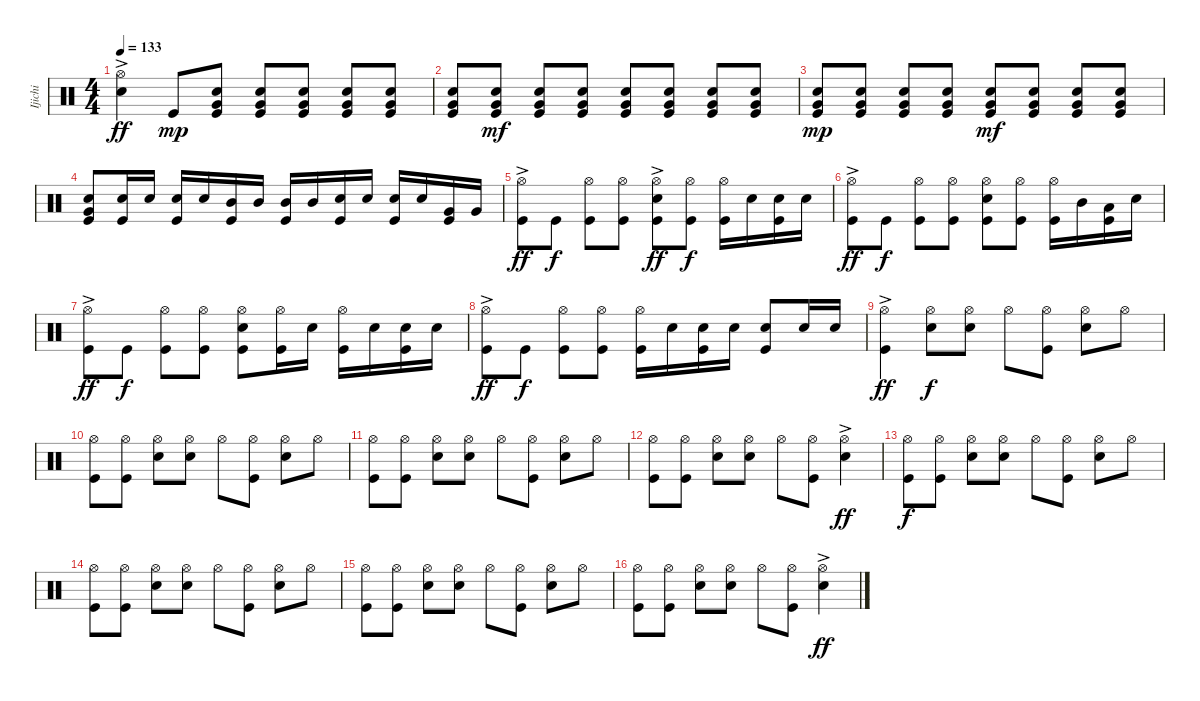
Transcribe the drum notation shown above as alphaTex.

\track ("Ijichi" "Ijichi") {instrument percussion}
\staff {score}
\articulation defaults
\ts (4 4)
\tempo 133
\clef neutral
\ks c
("Hi-Hat (open)"{ac} "Snare (hit) 2").4{dy ff} "Kick (hit)".8{dy mp} ("Snare (hit) 2" "Very Low Tom (hit)" "Kick (hit)").8 ("Snare (hit) 2" "Very Low Tom (hit)" "Kick (hit)").8 ("Snare (hit) 2" "Very Low Tom (hit)" "Kick (hit)").8 ("Snare (hit) 2" "Very Low Tom (hit)" "Kick (hit)").8 ("Snare (hit) 2" "Very Low Tom (hit)" "Kick (hit)").8 |
("Snare (hit) 2" "Very Low Tom (hit)" "Kick (hit)").8 ("Snare (hit) 2" "Very Low Tom (hit)" "Kick (hit)").8{dy mf} ("Snare (hit) 2" "Very Low Tom (hit)" "Kick (hit)").8 ("Snare (hit) 2" "Very Low Tom (hit)" "Kick (hit)").8 ("Snare (hit) 2" "Very Low Tom (hit)" "Kick (hit)").8 ("Snare (hit) 2" "Very Low Tom (hit)" "Kick (hit)").8 ("Snare (hit) 2" "Very Low Tom (hit)" "Kick (hit)").8 ("Snare (hit) 2" "Very Low Tom (hit)" "Kick (hit)").8 |
("Snare (hit) 2" "Very Low Tom (hit)" "Kick (hit)").8{dy mp} ("Snare (hit) 2" "Very Low Tom (hit)" "Kick (hit)").8 ("Snare (hit) 2" "Very Low Tom (hit)" "Kick (hit)").8 ("Snare (hit) 2" "Very Low Tom (hit)" "Kick (hit)").8 ("Snare (hit) 2" "Very Low Tom (hit)" "Kick (hit)").8{dy mf} ("Snare (hit) 2" "Very Low Tom (hit)" "Kick (hit)").8 ("Snare (hit) 2" "Very Low Tom (hit)" "Kick (hit)").8 ("Snare (hit) 2" "Very Low Tom (hit)" "Kick (hit)").8 |
("Snare (hit) 2" "Very Low Tom (hit)" "Kick (hit)").8 ("Snare (hit) 2" "Kick (hit)").16 "Snare (hit) 2".16 ("Snare (hit) 2" "Kick (hit)").16 "Snare (hit) 2".16 ("Mid Tom (hit)" "Kick (hit)").16 "Mid Tom (hit)".16 ("Mid Tom (hit)" "Kick (hit)").16 "Mid Tom (hit)".16 ("Snare (hit) 2" "Kick (hit)").16 "Snare (hit) 2".16 ("Snare (hit) 2" "Kick (hit)").16 "Snare (hit) 2".16 ("Very Low Tom (hit)" "Kick (hit)").16 "Very Low Tom (hit)".16 |
("Hi-Hat (open)"{ac} "Kick (hit)").8{dy ff} "Kick (hit)".8{dy f} ("Hi-Hat (open)" "Kick (hit)").8 ("Hi-Hat (open)" "Kick (hit)").8 ("Hi-Hat (open)"{ac} "Snare (hit) 2" "Kick (hit)").8{dy ff} ("Hi-Hat (open)" "Kick (hit)").8{dy f} ("Hi-Hat (open)" "Kick (hit)").16 "Snare (hit) 2".16 ("Snare (hit) 2" "Kick (hit)").16 "Snare (hit) 2".16 |
("Hi-Hat (open)"{ac} "Kick (hit)").8{dy ff} "Kick (hit)".8{dy f} ("Hi-Hat (open)" "Kick (hit)").8 ("Hi-Hat (open)" "Kick (hit)").8 ("Hi-Hat (open)" "Snare (hit) 2" "Kick (hit)").8 ("Hi-Hat (open)" "Kick (hit)").8 ("Hi-Hat (open)" "Kick (hit)").16 "Mid Tom (hit)".16 ("Low Tom (hit)" "Kick (hit)").16 "Snare (hit) 2".16 |
("Hi-Hat (open)"{ac} "Kick (hit)").8{dy ff} "Kick (hit)".8{dy f} ("Hi-Hat (open)" "Kick (hit)").8 ("Hi-Hat (open)" "Kick (hit)").8 ("Hi-Hat (open)" "Snare (hit) 2" "Kick (hit)").8 ("Hi-Hat (open)" "Kick (hit)").16 "Snare (hit) 2".16 ("Hi-Hat (open)" "Kick (hit)").16 "Snare (hit) 2".16 ("Snare (hit) 2" "Kick (hit)").16 "Snare (hit) 2".16 |
("Hi-Hat (open)"{ac} "Kick (hit)").8{dy ff} "Kick (hit)".8{dy f} ("Hi-Hat (open)" "Kick (hit)").8 ("Hi-Hat (open)" "Kick (hit)").8 ("Hi-Hat (open)" "Kick (hit)").16 "Snare (hit) 2".16 ("Snare (hit) 2" "Kick (hit)").16 "Snare (hit) 2".16 ("Snare (hit) 2" "Kick (hit)").8 "Snare (hit) 2".16 "Snare (hit) 2".16 |
("Hi-Hat (open)"{ac} "Kick (hit)").4{dy ff} ("Hi-Hat (open)" "Snare (hit) 2").8{dy f} ("Hi-Hat (open)" "Snare (hit) 2").8 "Hi-Hat (open)".8 ("Hi-Hat (open)" "Kick (hit)").8 ("Hi-Hat (open)" "Snare (hit) 2").8 "Hi-Hat (open)".8 |
("Hi-Hat (open)" "Kick (hit)").8 ("Hi-Hat (open)" "Kick (hit)").8 ("Hi-Hat (open)" "Snare (hit) 2").8 ("Hi-Hat (open)" "Snare (hit) 2").8 "Hi-Hat (open)".8 ("Hi-Hat (open)" "Kick (hit)").8 ("Hi-Hat (open)" "Snare (hit) 2").8 "Hi-Hat (open)".8 |
("Hi-Hat (open)" "Kick (hit)").8 ("Hi-Hat (open)" "Kick (hit)").8 ("Hi-Hat (open)" "Snare (hit) 2").8 ("Hi-Hat (open)" "Snare (hit) 2").8 "Hi-Hat (open)".8 ("Hi-Hat (open)" "Kick (hit)").8 ("Hi-Hat (open)" "Snare (hit) 2").8 "Hi-Hat (open)".8 |
("Hi-Hat (open)" "Kick (hit)").8 ("Hi-Hat (open)" "Kick (hit)").8 ("Hi-Hat (open)" "Snare (hit) 2").8 ("Hi-Hat (open)" "Snare (hit) 2").8 "Hi-Hat (open)".8 ("Hi-Hat (open)" "Kick (hit)").8 ("Hi-Hat (open)"{ac} "Snare (hit) 2").4{dy ff} |
("Hi-Hat (open)" "Kick (hit)").8{dy f} ("Hi-Hat (open)" "Kick (hit)").8 ("Hi-Hat (open)" "Snare (hit) 2").8 ("Hi-Hat (open)" "Snare (hit) 2").8 "Hi-Hat (open)".8 ("Hi-Hat (open)" "Kick (hit)").8 ("Hi-Hat (open)" "Snare (hit) 2").8 "Hi-Hat (open)".8 |
("Hi-Hat (open)" "Kick (hit)").8 ("Hi-Hat (open)" "Kick (hit)").8 ("Hi-Hat (open)" "Snare (hit) 2").8 ("Hi-Hat (open)" "Snare (hit) 2").8 "Hi-Hat (open)".8 ("Hi-Hat (open)" "Kick (hit)").8 ("Hi-Hat (open)" "Snare (hit) 2").8 "Hi-Hat (open)".8 |
("Hi-Hat (open)" "Kick (hit)").8 ("Hi-Hat (open)" "Kick (hit)").8 ("Hi-Hat (open)" "Snare (hit) 2").8 ("Hi-Hat (open)" "Snare (hit) 2").8 "Hi-Hat (open)".8 ("Hi-Hat (open)" "Kick (hit)").8 ("Hi-Hat (open)" "Snare (hit) 2").8 "Hi-Hat (open)".8 |
("Hi-Hat (open)" "Kick (hit)").8 ("Hi-Hat (open)" "Kick (hit)").8 ("Hi-Hat (open)" "Snare (hit) 2").8 ("Hi-Hat (open)" "Snare (hit) 2").8 "Hi-Hat (open)".8 ("Hi-Hat (open)" "Kick (hit)").8 ("Hi-Hat (open)"{ac} "Snare (hit) 2").4{dy ff}
